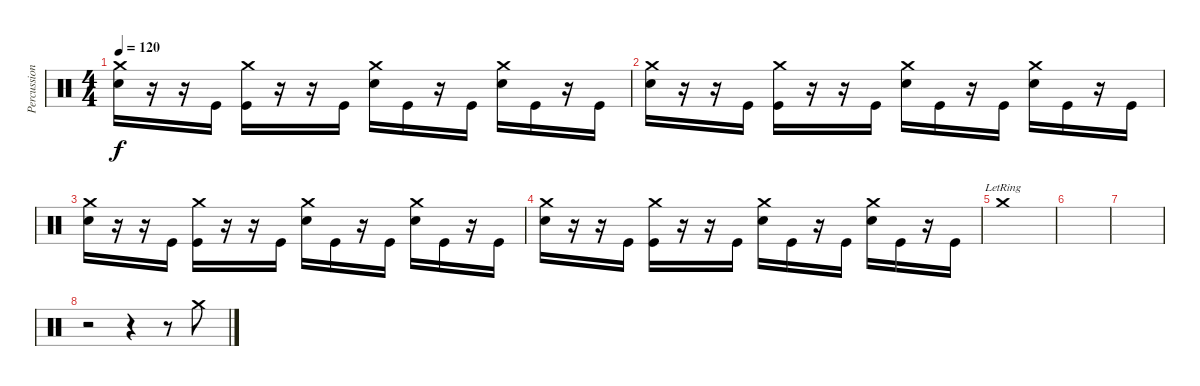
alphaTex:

\track ("Percussion" "Percussion") {instrument percussion}
\staff {score}
\articulation defaults
\ts (4 4)
\tempo 120
\clef neutral
\ks c
("Crash medium (hit)" "Electric Snare (hit)").16{dy f} r.16 r.16 "Kick (hit)".16 ("Crash medium (hit)" "Kick (hit)").16 r.16 r.16 "Kick (hit)".16 ("Crash medium (hit)" "Electric Snare (hit)").16 "Kick (hit)".16 r.16 "Kick (hit)".16 ("Crash medium (hit)" "Electric Snare (hit)").16 "Kick (hit)".16 r.16 "Kick (hit)".16 |
("Crash medium (hit)" "Electric Snare (hit)").16 r.16 r.16 "Kick (hit)".16 ("Crash medium (hit)" "Kick (hit)").16 r.16 r.16 "Kick (hit)".16 ("Crash medium (hit)" "Electric Snare (hit)").16 "Kick (hit)".16 r.16 "Kick (hit)".16 ("Crash medium (hit)" "Electric Snare (hit)").16 "Kick (hit)".16 r.16 "Kick (hit)".16 |
("Crash medium (hit)" "Electric Snare (hit)").16 r.16 r.16 "Kick (hit)".16 ("Crash medium (hit)" "Kick (hit)").16 r.16 r.16 "Kick (hit)".16 ("Crash medium (hit)" "Electric Snare (hit)").16 "Kick (hit)".16 r.16 "Kick (hit)".16 ("Crash medium (hit)" "Electric Snare (hit)").16 "Kick (hit)".16 r.16 "Kick (hit)".16 |
("Crash medium (hit)" "Electric Snare (hit)").16 r.16 r.16 "Kick (hit)".16 ("Crash medium (hit)" "Kick (hit)").16 r.16 r.16 "Kick (hit)".16 ("Crash medium (hit)" "Electric Snare (hit)").16 "Kick (hit)".16 r.16 "Kick (hit)".16 ("Crash medium (hit)" "Electric Snare (hit)").16 "Kick (hit)".16 r.16 "Kick (hit)".16 |
"Crash medium (hit)"{lr}.1 |
|
|
r.2 r.4 r.8 "Crash medium (hit)".8
